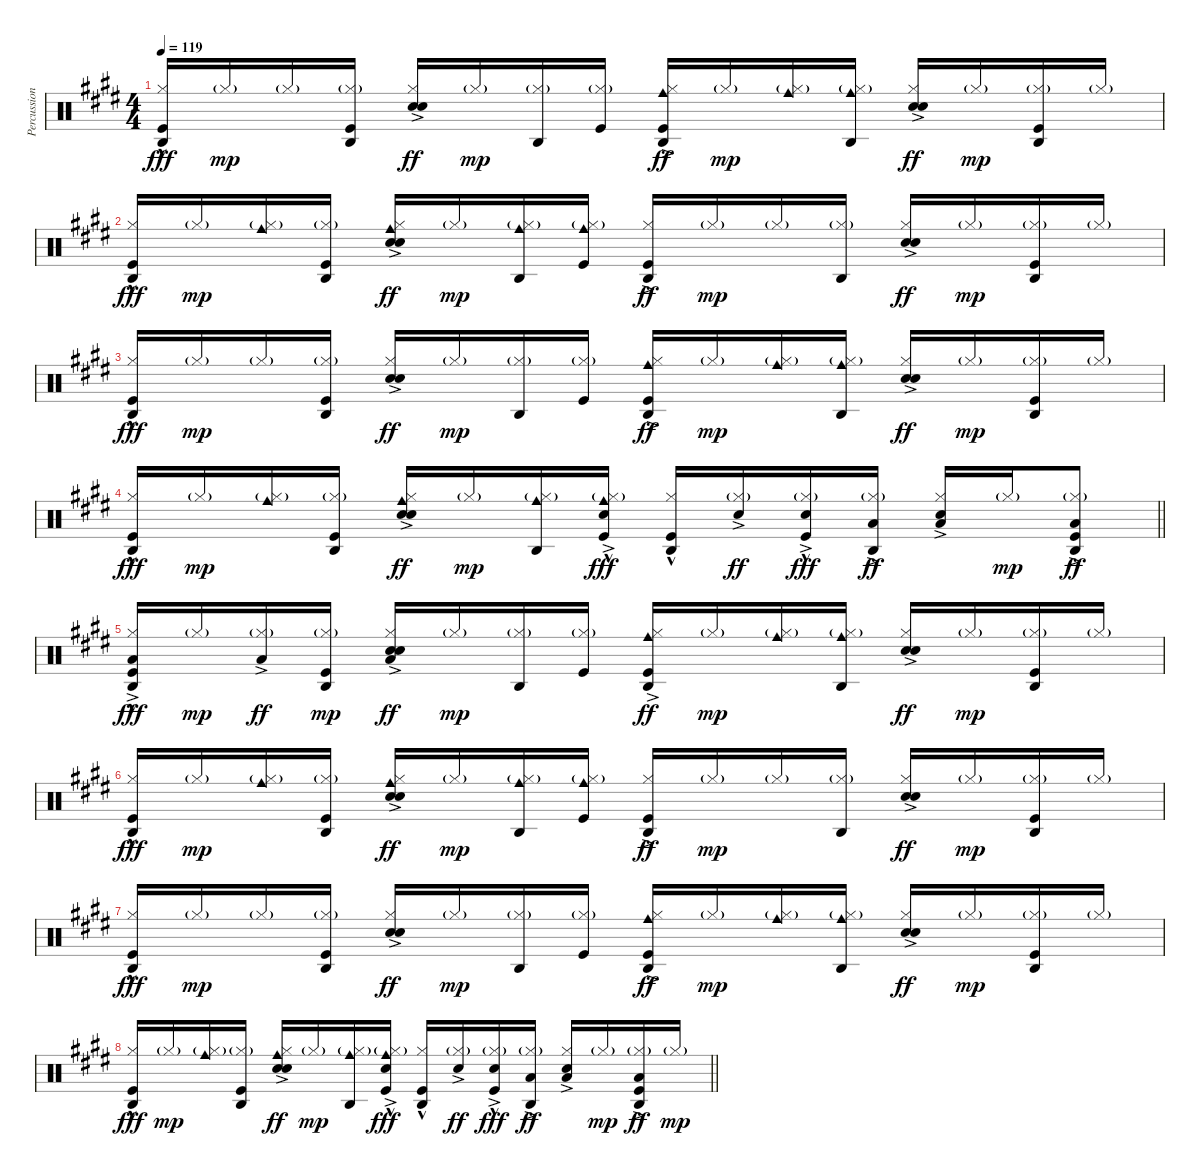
\track ("Percussion" "Percussion") {instrument percussion}
\staff {score}
\articulation defaults
\ts (4 4)
\tempo 119
\clef neutral
\ks e
("Agogo high (hit)" "Hi-Hat (closed)" "Kick (hit)"{hac}).16{dy fff} "Hi-Hat (closed)"{g}.16{dy mp} "Hi-Hat (closed)"{g}.16 ("Agogo high (hit)" "Hi-Hat (closed)"{g} "Kick (hit)").16 ("Hi-Hat (closed)" "Hand Clap (hit)"{ac} "Snare (hit) 2"{ac}).16{dy ff} "Hi-Hat (closed)"{g}.16{dy mp} ("Agogo high (hit)" "Hi-Hat (closed)"{g}).16 ("Hi-Hat (closed)"{g} "Kick (hit)").16 ("Agogo high (hit)" "Cowbell medium (hit)" "Hi-Hat (closed)" "Kick (hit)"{ac}).16{dy ff} "Hi-Hat (closed)"{g}.16{dy mp} ("Cowbell medium (hit)" "Hi-Hat (closed)"{g}).16 ("Agogo high (hit)" "Cowbell medium (hit)" "Hi-Hat (closed)"{g}).16 ("Hi-Hat (closed)" "Hand Clap (hit)"{ac} "Snare (hit) 2"{ac}).16{dy ff} "Hi-Hat (closed)"{g}.16{dy mp} ("Agogo high (hit)" "Hi-Hat (closed)"{g} "Kick (hit)").16 "Hi-Hat (closed)"{g}.16 |
("Agogo high (hit)" "Hi-Hat (closed)" "Kick (hit)"{hac}).16{dy fff} "Hi-Hat (closed)"{g}.16{dy mp} ("Cowbell medium (hit)" "Hi-Hat (closed)"{g}).16 ("Agogo high (hit)" "Hi-Hat (closed)"{g} "Kick (hit)").16 ("Cowbell medium (hit)" "Hi-Hat (closed)" "Hand Clap (hit)"{ac} "Snare (hit) 2"{ac}).16{dy ff} "Hi-Hat (closed)"{g}.16{dy mp} ("Agogo high (hit)" "Cowbell medium (hit)" "Hi-Hat (closed)"{g}).16 ("Cowbell medium (hit)" "Hi-Hat (closed)"{g} "Kick (hit)").16 ("Agogo high (hit)" "Hi-Hat (closed)" "Kick (hit)"{ac}).16{dy ff} "Hi-Hat (closed)"{g}.16{dy mp} "Hi-Hat (closed)"{g}.16 ("Agogo high (hit)" "Hi-Hat (closed)"{g}).16 ("Hi-Hat (closed)" "Hand Clap (hit)"{ac} "Snare (hit) 2"{ac}).16{dy ff} "Hi-Hat (closed)"{g}.16{dy mp} ("Agogo high (hit)" "Hi-Hat (closed)"{g} "Kick (hit)").16 "Hi-Hat (closed)"{g}.16 |
("Agogo high (hit)" "Hi-Hat (closed)" "Kick (hit)"{hac}).16{dy fff} "Hi-Hat (closed)"{g}.16{dy mp} "Hi-Hat (closed)"{g}.16 ("Agogo high (hit)" "Hi-Hat (closed)"{g} "Kick (hit)").16 ("Hi-Hat (closed)" "Hand Clap (hit)"{ac} "Snare (hit) 2"{ac}).16{dy ff} "Hi-Hat (closed)"{g}.16{dy mp} ("Agogo high (hit)" "Hi-Hat (closed)"{g}).16 ("Hi-Hat (closed)"{g} "Kick (hit)").16 ("Agogo high (hit)" "Cowbell medium (hit)" "Hi-Hat (closed)" "Kick (hit)"{ac}).16{dy ff} "Hi-Hat (closed)"{g}.16{dy mp} ("Cowbell medium (hit)" "Hi-Hat (closed)"{g}).16 ("Agogo high (hit)" "Cowbell medium (hit)" "Hi-Hat (closed)"{g}).16 ("Hi-Hat (closed)" "Hand Clap (hit)"{ac} "Snare (hit) 2"{ac}).16{dy ff} "Hi-Hat (closed)"{g}.16{dy mp} ("Agogo high (hit)" "Hi-Hat (closed)"{g} "Kick (hit)").16 "Hi-Hat (closed)"{g}.16 |
\barLineRight lightlight
("Agogo high (hit)" "Hi-Hat (closed)" "Kick (hit)"{hac}).16{dy fff} "Hi-Hat (closed)"{g}.16{dy mp} ("Cowbell medium (hit)" "Hi-Hat (closed)"{g}).16 ("Agogo high (hit)" "Hi-Hat (closed)"{g} "Kick (hit)").16 ("Cowbell medium (hit)" "Hi-Hat (closed)" "Hand Clap (hit)"{ac} "Snare (hit) 2"{ac}).16{dy ff} "Hi-Hat (closed)"{g}.16{dy mp} ("Agogo high (hit)" "Cowbell medium (hit)" "Hi-Hat (closed)"{g}).16 ("Cowbell medium (hit)" "Hi-Hat (closed)"{g} "Hand Clap (hit)"{ac} "Kick (hit)"{hac}).16{dy fff} ("Agogo high (hit)" "Hi-Hat (closed)" "Kick (hit)"{hac}).16 ("Hi-Hat (closed)"{g} "Hand Clap (hit)"{ac}).16{dy ff} ("Hi-Hat (closed)"{g} "Hand Clap (hit)"{ac} "Kick (hit)"{hac}).16{dy fff} ("Agogo high (hit)" "Hi-Hat (closed)"{g} "Low Tom (hit)"{ac}).16{dy ff} ("Hi-Hat (closed)" "Hand Clap (hit)"{ac} "Low Tom (hit)"{ac}).16 "Hi-Hat (closed)"{g}.16{dy mp} ("Agogo high (hit)" "Hi-Hat (closed)"{g} "Low Tom (hit)"{ac} "Kick (hit)").8{dy ff} |
("Agogo high (hit)" "Hi-Hat (closed)" "Low Tom (hit)"{ac} "Kick (hit)"{hac}).16{dy fff} "Hi-Hat (closed)"{g}.16{dy mp} ("Hi-Hat (closed)"{g} "Low Tom (hit)"{ac}).16{dy ff} ("Agogo high (hit)" "Hi-Hat (closed)"{g} "Kick (hit)").16{dy mp} ("Hi-Hat (closed)" "Hand Clap (hit)"{ac} "Snare (hit) 2"{ac} "Low Tom (hit)"{ac}).16{dy ff} "Hi-Hat (closed)"{g}.16{dy mp} ("Agogo high (hit)" "Hi-Hat (closed)"{g}).16 ("Hi-Hat (closed)"{g} "Kick (hit)").16 ("Agogo high (hit)" "Cowbell medium (hit)" "Hi-Hat (closed)" "Kick (hit)"{ac}).16{dy ff} "Hi-Hat (closed)"{g}.16{dy mp} ("Cowbell medium (hit)" "Hi-Hat (closed)"{g}).16 ("Agogo high (hit)" "Cowbell medium (hit)" "Hi-Hat (closed)"{g}).16 ("Hi-Hat (closed)" "Hand Clap (hit)"{ac} "Snare (hit) 2"{ac}).16{dy ff} "Hi-Hat (closed)"{g}.16{dy mp} ("Agogo high (hit)" "Hi-Hat (closed)"{g} "Kick (hit)").16 "Hi-Hat (closed)"{g}.16 |
("Agogo high (hit)" "Hi-Hat (closed)" "Kick (hit)"{hac}).16{dy fff} "Hi-Hat (closed)"{g}.16{dy mp} ("Cowbell medium (hit)" "Hi-Hat (closed)"{g}).16 ("Agogo high (hit)" "Hi-Hat (closed)"{g} "Kick (hit)").16 ("Cowbell medium (hit)" "Hi-Hat (closed)" "Hand Clap (hit)"{ac} "Snare (hit) 2"{ac}).16{dy ff} "Hi-Hat (closed)"{g}.16{dy mp} ("Agogo high (hit)" "Cowbell medium (hit)" "Hi-Hat (closed)"{g}).16 ("Cowbell medium (hit)" "Hi-Hat (closed)"{g} "Kick (hit)").16 ("Agogo high (hit)" "Hi-Hat (closed)" "Kick (hit)"{ac}).16{dy ff} "Hi-Hat (closed)"{g}.16{dy mp} "Hi-Hat (closed)"{g}.16 ("Agogo high (hit)" "Hi-Hat (closed)"{g}).16 ("Hi-Hat (closed)" "Hand Clap (hit)"{ac} "Snare (hit) 2"{ac}).16{dy ff} "Hi-Hat (closed)"{g}.16{dy mp} ("Agogo high (hit)" "Hi-Hat (closed)"{g} "Kick (hit)").16 "Hi-Hat (closed)"{g}.16 |
("Agogo high (hit)" "Hi-Hat (closed)" "Kick (hit)"{hac}).16{dy fff} "Hi-Hat (closed)"{g}.16{dy mp} "Hi-Hat (closed)"{g}.16 ("Agogo high (hit)" "Hi-Hat (closed)"{g} "Kick (hit)").16 ("Hi-Hat (closed)" "Hand Clap (hit)"{ac} "Snare (hit) 2"{ac}).16{dy ff} "Hi-Hat (closed)"{g}.16{dy mp} ("Agogo high (hit)" "Hi-Hat (closed)"{g}).16 ("Hi-Hat (closed)"{g} "Kick (hit)").16 ("Agogo high (hit)" "Cowbell medium (hit)" "Hi-Hat (closed)" "Kick (hit)"{ac}).16{dy ff} "Hi-Hat (closed)"{g}.16{dy mp} ("Cowbell medium (hit)" "Hi-Hat (closed)"{g}).16 ("Agogo high (hit)" "Cowbell medium (hit)" "Hi-Hat (closed)"{g}).16 ("Hi-Hat (closed)" "Hand Clap (hit)"{ac} "Snare (hit) 2"{ac}).16{dy ff} "Hi-Hat (closed)"{g}.16{dy mp} ("Agogo high (hit)" "Hi-Hat (closed)"{g} "Kick (hit)").16 "Hi-Hat (closed)"{g}.16 |
\barLineRight lightlight
("Agogo high (hit)" "Hi-Hat (closed)" "Kick (hit)"{hac}).16{dy fff} "Hi-Hat (closed)"{g}.16{dy mp} ("Cowbell medium (hit)" "Hi-Hat (closed)"{g}).16 ("Agogo high (hit)" "Hi-Hat (closed)"{g} "Kick (hit)").16 ("Cowbell medium (hit)" "Hi-Hat (closed)" "Hand Clap (hit)"{ac} "Snare (hit) 2"{ac}).16{dy ff} "Hi-Hat (closed)"{g}.16{dy mp} ("Agogo high (hit)" "Cowbell medium (hit)" "Hi-Hat (closed)"{g}).16 ("Cowbell medium (hit)" "Hi-Hat (closed)"{g} "Hand Clap (hit)"{ac} "Kick (hit)"{hac}).16{dy fff} ("Agogo high (hit)" "Hi-Hat (closed)" "Kick (hit)"{hac}).16 ("Hi-Hat (closed)"{g} "Hand Clap (hit)"{ac}).16{dy ff} ("Hi-Hat (closed)"{g} "Hand Clap (hit)"{ac} "Kick (hit)"{hac}).16{dy fff} ("Agogo high (hit)" "Hi-Hat (closed)"{g} "Low Tom (hit)"{ac}).16{dy ff} ("Hi-Hat (closed)" "Hand Clap (hit)"{ac} "Low Tom (hit)"{ac}).16 "Hi-Hat (closed)"{g}.16{dy mp} ("Agogo high (hit)" "Hi-Hat (closed)"{g} "Low Tom (hit)"{ac} "Kick (hit)").16{dy ff} "Hi-Hat (closed)"{g}.16{dy mp}
